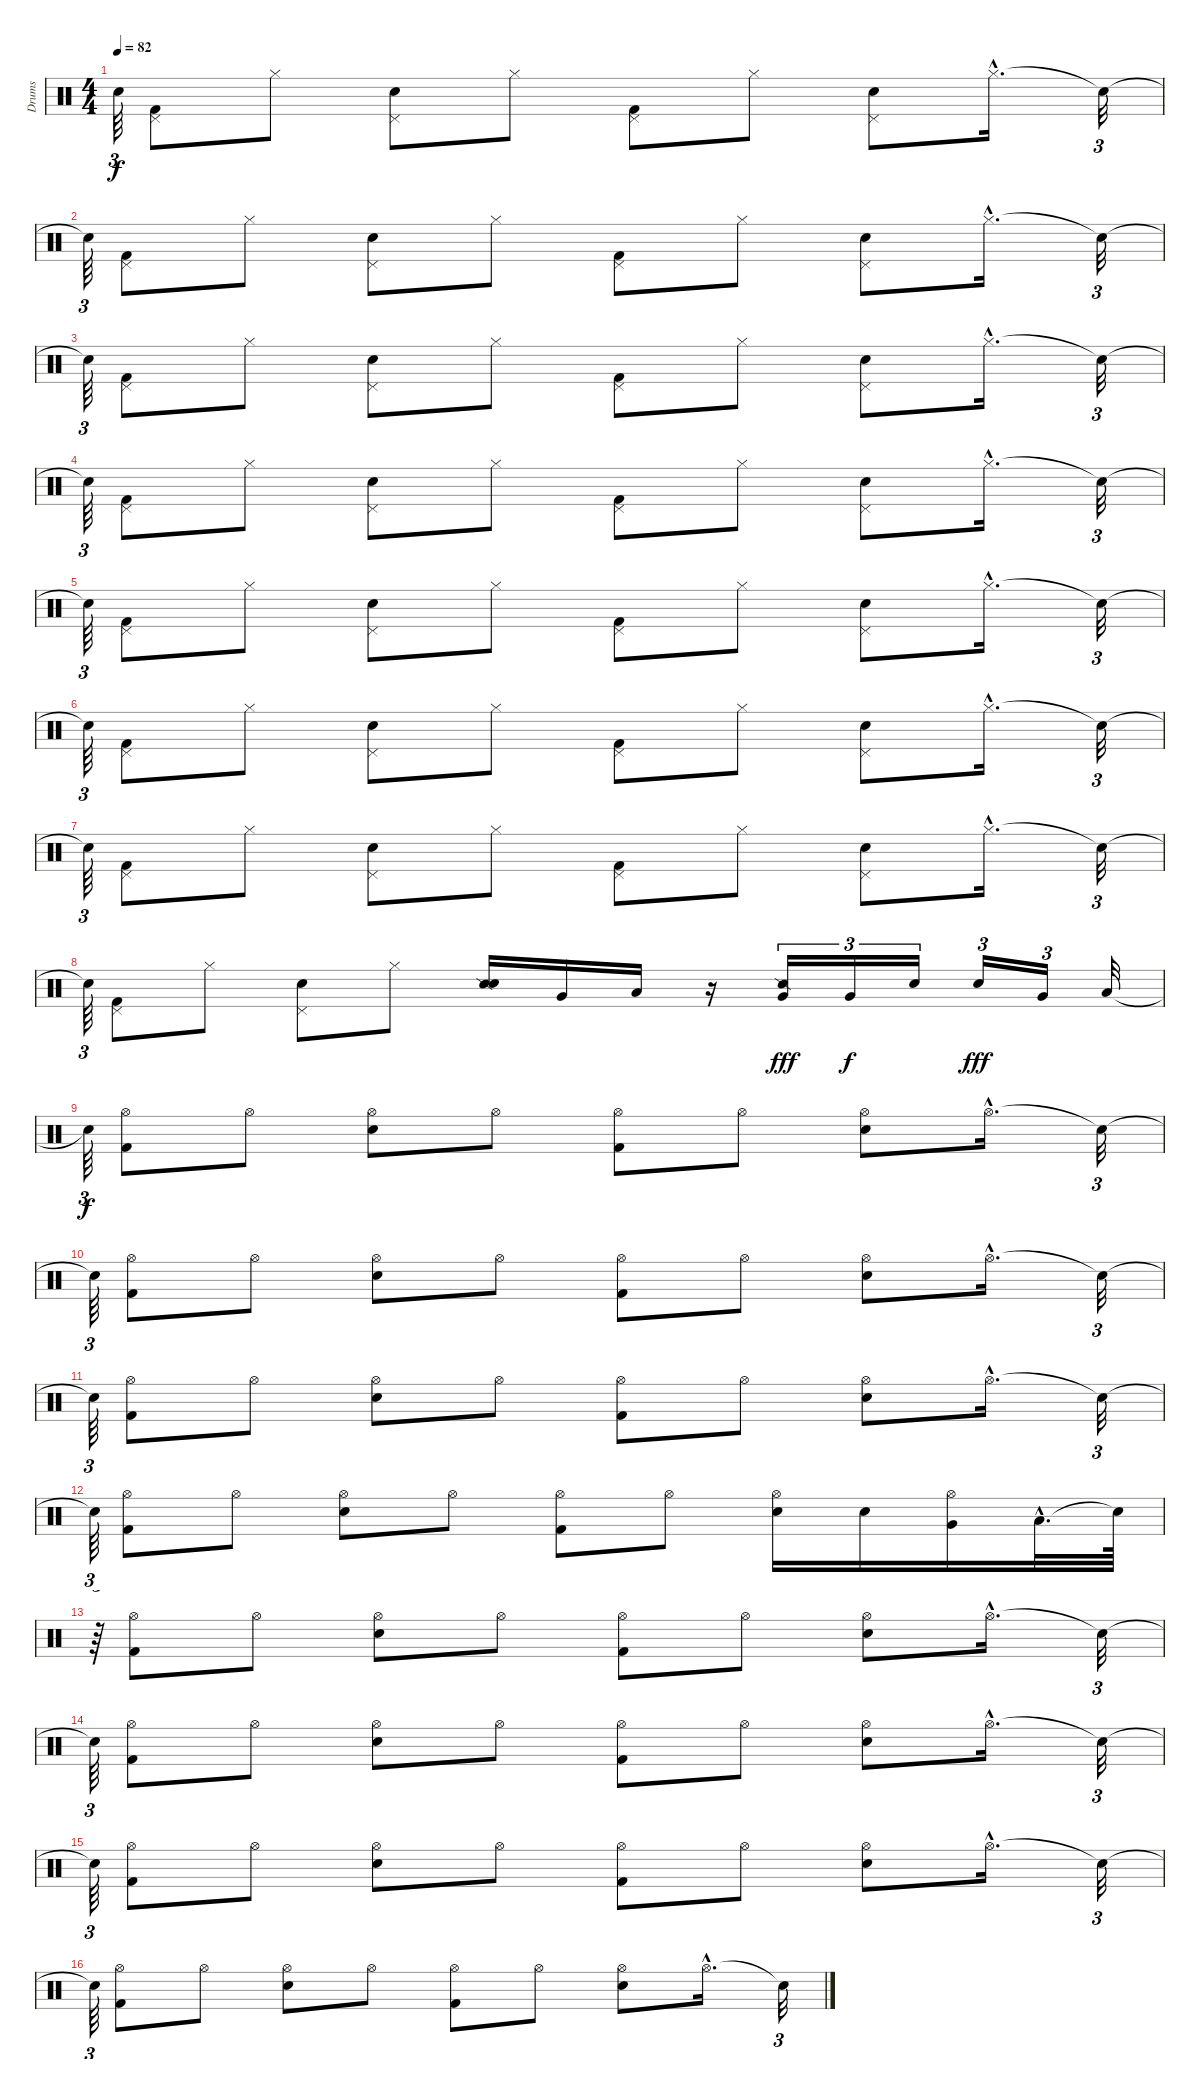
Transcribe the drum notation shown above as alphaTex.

\track ("Drums" "Drums") {instrument percussion}
\staff {score}
\articulation defaults
\ts (4 4)
\tempo 82
\clef neutral
\ks c "Snare (hit)"{t}.64{tu (3 2) dy f}
("Kick (hit) 2" "Pedal Hi-Hat (hit)").8{volume 13 balance 8} "Hi-Hat (closed)".8 ("Pedal Hi-Hat (hit)" "Electric Snare (hit)").8 "Hi-Hat (closed)".8 ("Pedal Hi-Hat (hit)" "Kick (hit) 2").8 "Hi-Hat (closed)".8 ("Pedal Hi-Hat (hit)" "Electric Snare (hit)").8 "Hi-Hat (closed)"{hac}.16{d} "Snare (hit)"{t}.32{tu (3 2)} |
"Snare (hit)"{t}.64{tu (3 2)} ("Kick (hit) 2" "Pedal Hi-Hat (hit)").8 "Hi-Hat (closed)".8 ("Pedal Hi-Hat (hit)" "Electric Snare (hit)").8 "Hi-Hat (closed)".8 ("Pedal Hi-Hat (hit)" "Kick (hit) 2").8 "Hi-Hat (closed)".8 ("Electric Snare (hit)" "Pedal Hi-Hat (hit)").8 "Hi-Hat (closed)"{hac}.16{d} "Snare (hit)"{t}.32{tu (3 2)} |
"Snare (hit)"{t}.64{tu (3 2)} ("Pedal Hi-Hat (hit)" "Kick (hit) 2").8 "Hi-Hat (closed)".8 ("Electric Snare (hit)" "Pedal Hi-Hat (hit)").8 "Hi-Hat (closed)".8 ("Kick (hit) 2" "Pedal Hi-Hat (hit)").8 "Hi-Hat (closed)".8 ("Electric Snare (hit)" "Pedal Hi-Hat (hit)").8 "Hi-Hat (closed)"{hac}.16{d} "Snare (hit)"{t}.32{tu (3 2)} |
"Snare (hit)"{t}.64{tu (3 2)} ("Kick (hit) 2" "Pedal Hi-Hat (hit)").8 "Hi-Hat (closed)".8 ("Electric Snare (hit)" "Pedal Hi-Hat (hit)").8 "Hi-Hat (closed)".8 ("Kick (hit) 2" "Pedal Hi-Hat (hit)").8 "Hi-Hat (closed)".8 ("Electric Snare (hit)" "Pedal Hi-Hat (hit)").8 "Hi-Hat (closed)"{hac}.16{d} "Snare (hit)"{t}.32{tu (3 2)} |
"Snare (hit)"{t}.64{tu (3 2)} ("Pedal Hi-Hat (hit)" "Kick (hit) 2").8 "Hi-Hat (closed)".8 ("Pedal Hi-Hat (hit)" "Electric Snare (hit)").8 "Hi-Hat (closed)".8 ("Pedal Hi-Hat (hit)" "Kick (hit) 2").8 "Hi-Hat (closed)".8 ("Pedal Hi-Hat (hit)" "Electric Snare (hit)").8 "Hi-Hat (closed)"{hac}.16{d} "Snare (hit)"{t}.32{tu (3 2)} |
"Snare (hit)"{t}.64{tu (3 2)} ("Pedal Hi-Hat (hit)" "Kick (hit) 2").8 "Hi-Hat (closed)".8 ("Pedal Hi-Hat (hit)" "Electric Snare (hit)").8 "Hi-Hat (closed)".8 ("Kick (hit) 2" "Pedal Hi-Hat (hit)").8 "Hi-Hat (closed)".8 ("Electric Snare (hit)" "Pedal Hi-Hat (hit)").8 "Hi-Hat (closed)"{hac}.16{d} "Snare (hit)"{t}.32{tu (3 2)} |
"Snare (hit)"{t}.64{tu (3 2)} ("Pedal Hi-Hat (hit)" "Kick (hit) 2").8 "Hi-Hat (closed)".8 ("Electric Snare (hit)" "Pedal Hi-Hat (hit)").8 "Hi-Hat (closed)".8 ("Kick (hit) 2" "Pedal Hi-Hat (hit)").8 "Hi-Hat (closed)".8 ("Electric Snare (hit)" "Pedal Hi-Hat (hit)").8 "Hi-Hat (closed)"{hac}.16{d} "Snare (hit)"{t}.32{tu (3 2)} |
"Snare (hit)"{t}.64{tu (3 2)} ("Kick (hit) 2" "Pedal Hi-Hat (hit)").8 "Hi-Hat (closed)".8 ("Electric Snare (hit)" "Pedal Hi-Hat (hit)").8 "Hi-Hat (closed)".8 ("Snare (side stick) 2" "Snare (hit) 2").16 "Very Low Tom (hit)".16 "Low Floor Tom (hit)".16 r.16 ("Very Low Tom (hit)" "Snare (side stick) 2").16{tu (3 2) dy fff} "Very Low Tom (hit)".16{tu (3 2) dy f} "Electric Snare (hit)".16{tu (3 2)} "Electric Snare (hit)".16{tu (3 2) dy fff} "Very Low Tom (hit)".16{tu (3 2)} "Low Floor Tom (hit)".32 |
"Snare (hit)"{t}.64{tu (3 2) dy f} ("Hi-Hat (open)" "Kick (hit) 2").8{volume 13 balance 8} "Hi-Hat (open)".8 ("Hi-Hat (open)" "Electric Snare (hit)").8 "Hi-Hat (open)".8 ("Kick (hit) 2" "Hi-Hat (open)").8 "Hi-Hat (open)".8 ("Hi-Hat (open)" "Electric Snare (hit)").8 "Hi-Hat (open)"{hac}.16{d} "Snare (hit)"{t}.32{tu (3 2)} |
"Snare (hit)"{t}.64{tu (3 2)} ("Kick (hit) 2" "Hi-Hat (open)").8 "Hi-Hat (open)".8 ("Electric Snare (hit)" "Hi-Hat (open)").8 "Hi-Hat (open)".8 ("Kick (hit) 2" "Hi-Hat (open)").8 "Hi-Hat (open)".8 ("Electric Snare (hit)" "Hi-Hat (open)").8 "Hi-Hat (open)"{hac}.16{d} "Snare (hit)"{t}.32{tu (3 2)} |
"Snare (hit)"{t}.64{tu (3 2)} ("Hi-Hat (open)" "Kick (hit) 2").8 "Hi-Hat (open)".8 ("Electric Snare (hit)" "Hi-Hat (open)").8 "Hi-Hat (open)".8 ("Hi-Hat (open)" "Kick (hit) 2").8 "Hi-Hat (open)".8 ("Electric Snare (hit)" "Hi-Hat (open)").8 "Hi-Hat (open)"{hac}.16{d} "Snare (hit)"{t}.32{tu (3 2)} |
"Snare (hit)"{t}.64{tu (3 2)} ("Kick (hit) 2" "Hi-Hat (open)").8 "Hi-Hat (open)".8 ("Hi-Hat (open)" "Electric Snare (hit)").8 "Hi-Hat (open)".8 ("Kick (hit) 2" "Hi-Hat (open)").8 "Hi-Hat (open)".8 ("Electric Snare (hit)" "Hi-Hat (open)").16 "Snare (hit) 2".16 ("Very Low Tom (hit)" "Hi-Hat (open)").16 "Low Floor Tom (hit)"{hac}.32{d} "Snare (hit)"{t}.64 |
r.64{tu (3 2)} ("Hi-Hat (open)" "Kick (hit) 2").8 "Hi-Hat (open)".8 ("Hi-Hat (open)" "Electric Snare (hit)").8 "Hi-Hat (open)".8 ("Hi-Hat (open)" "Kick (hit) 2").8 "Hi-Hat (open)".8 ("Hi-Hat (open)" "Electric Snare (hit)").8 "Hi-Hat (open)"{hac}.16{d} "Snare (hit)"{t}.32{tu (3 2)} |
"Snare (hit)"{t}.64{tu (3 2)} ("Kick (hit) 2" "Hi-Hat (open)").8 "Hi-Hat (open)".8 ("Hi-Hat (open)" "Electric Snare (hit)").8 "Hi-Hat (open)".8 ("Kick (hit) 2" "Hi-Hat (open)").8 "Hi-Hat (open)".8 ("Electric Snare (hit)" "Hi-Hat (open)").8 "Hi-Hat (open)"{hac}.16{d} "Snare (hit)"{t}.32{tu (3 2)} |
"Snare (hit)"{t}.64{tu (3 2)} ("Hi-Hat (open)" "Kick (hit) 2").8 "Hi-Hat (open)".8 ("Electric Snare (hit)" "Hi-Hat (open)").8 "Hi-Hat (open)".8 ("Hi-Hat (open)" "Kick (hit) 2").8 "Hi-Hat (open)".8 ("Hi-Hat (open)" "Electric Snare (hit)").8 "Hi-Hat (open)"{hac}.16{d} "Snare (hit)"{t}.32{tu (3 2)} |
"Snare (hit)"{t}.64{tu (3 2)} ("Hi-Hat (open)" "Kick (hit) 2").8 "Hi-Hat (open)".8 ("Hi-Hat (open)" "Electric Snare (hit)").8 "Hi-Hat (open)".8 ("Hi-Hat (open)" "Kick (hit) 2").8 "Hi-Hat (open)".8 ("Hi-Hat (open)" "Electric Snare (hit)").8 "Hi-Hat (open)"{hac}.16{d} "Snare (hit)"{t}.32{tu (3 2)}
